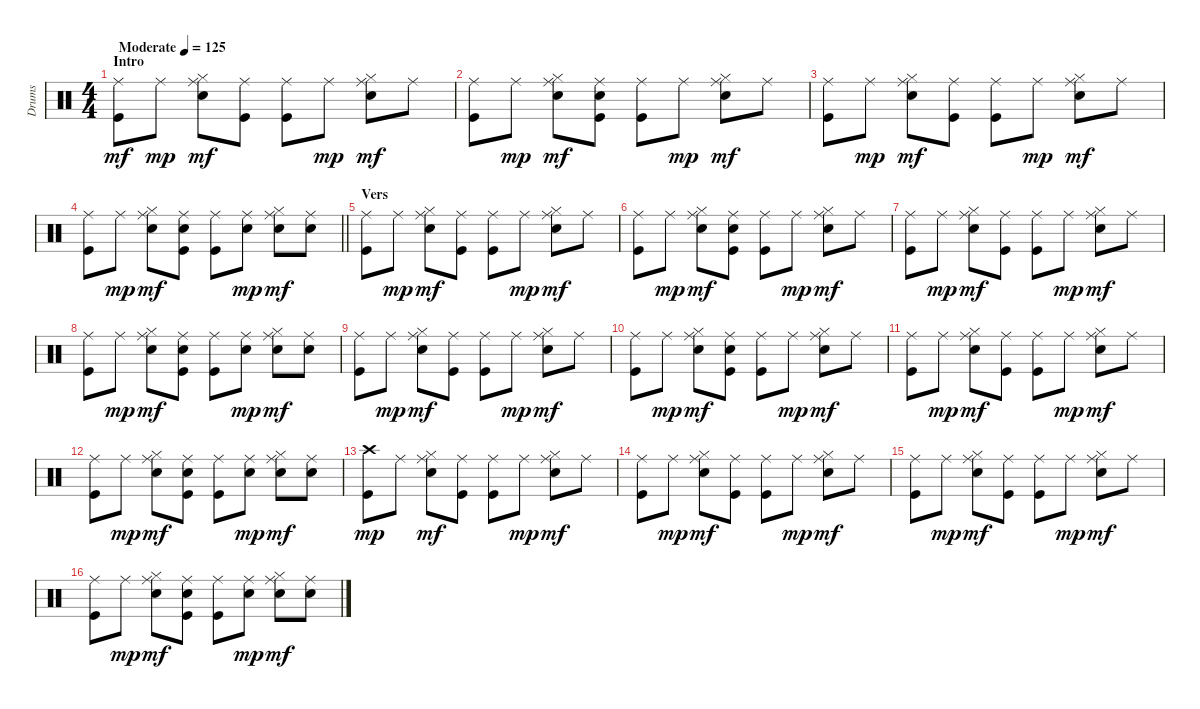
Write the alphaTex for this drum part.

\track ("Drums " "Drums ") {instrument percussion}
\staff {score}
\articulation defaults
\ts (4 4)
\section ("" "Intro")
\tempo (125 "Moderate")
\clef neutral
\ks c
("Kick (hit)" "Ride (middle)").8{dy mf} "Ride (middle)".8{dy mp} ("Snare (hit) 2" "Hi-Hat (closed)" "Ride (middle)").8{dy mf} ("Kick (hit)" "Ride (middle)").8 ("Kick (hit)" "Ride (middle)").8 "Ride (middle)".8{dy mp} ("Snare (hit) 2" "Hi-Hat (closed)" "Ride (middle)").8{dy mf} "Ride (middle)".8 |
("Kick (hit)" "Ride (middle)").8 "Ride (middle)".8{dy mp} ("Snare (hit) 2" "Hi-Hat (closed)" "Ride (middle)").8{dy mf} ("Kick (hit)" "Snare (hit) 2" "Ride (middle)").8 ("Kick (hit)" "Ride (middle)").8 "Ride (middle)".8{dy mp} ("Snare (hit) 2" "Hi-Hat (closed)" "Ride (middle)").8{dy mf} "Ride (middle)".8 |
("Kick (hit)" "Ride (middle)").8 "Ride (middle)".8{dy mp} ("Snare (hit) 2" "Hi-Hat (closed)" "Ride (middle)").8{dy mf} ("Kick (hit)" "Ride (middle)").8 ("Kick (hit)" "Ride (middle)").8 "Ride (middle)".8{dy mp} ("Snare (hit) 2" "Hi-Hat (closed)" "Ride (middle)").8{dy mf} "Ride (middle)".8 |
\barLineRight lightlight
("Kick (hit)" "Ride (middle)").8 "Ride (middle)".8{dy mp} ("Snare (hit) 2" "Hi-Hat (closed)" "Ride (middle)").8{dy mf} ("Kick (hit)" "Snare (hit) 2" "Ride (middle)").8 ("Kick (hit)" "Ride (middle)").8 ("Snare (hit) 2" "Ride (middle)").8{dy mp} ("Snare (hit) 2" "Hi-Hat (closed)" "Ride (middle)").8{dy mf} ("Snare (hit) 2" "Ride (middle)").8 |
\section ("" "Vers")
("Kick (hit)" "Ride (middle)").8 "Ride (middle)".8{dy mp} ("Snare (hit) 2" "Hi-Hat (closed)" "Ride (middle)").8{dy mf} ("Kick (hit)" "Ride (middle)").8 ("Kick (hit)" "Ride (middle)").8 "Ride (middle)".8{dy mp} ("Snare (hit) 2" "Hi-Hat (closed)" "Ride (middle)").8{dy mf} "Ride (middle)".8 |
("Kick (hit)" "Ride (middle)").8 "Ride (middle)".8{dy mp} ("Snare (hit) 2" "Hi-Hat (closed)" "Ride (middle)").8{dy mf} ("Kick (hit)" "Snare (hit) 2" "Ride (middle)").8 ("Kick (hit)" "Ride (middle)").8 "Ride (middle)".8{dy mp} ("Snare (hit) 2" "Hi-Hat (closed)" "Ride (middle)").8{dy mf} "Ride (middle)".8 |
("Kick (hit)" "Ride (middle)").8 "Ride (middle)".8{dy mp} ("Snare (hit) 2" "Hi-Hat (closed)" "Ride (middle)").8{dy mf} ("Kick (hit)" "Ride (middle)").8 ("Kick (hit)" "Ride (middle)").8 "Ride (middle)".8{dy mp} ("Snare (hit) 2" "Hi-Hat (closed)" "Ride (middle)").8{dy mf} "Ride (middle)".8 |
("Kick (hit)" "Ride (middle)").8 "Ride (middle)".8{dy mp} ("Snare (hit) 2" "Hi-Hat (closed)" "Ride (middle)").8{dy mf} ("Kick (hit)" "Snare (hit) 2" "Ride (middle)").8 ("Kick (hit)" "Ride (middle)").8 ("Snare (hit) 2" "Ride (middle)").8{dy mp} ("Snare (hit) 2" "Hi-Hat (closed)" "Ride (middle)").8{dy mf} ("Snare (hit) 2" "Ride (middle)").8 |
("Kick (hit)" "Ride (middle)").8 "Ride (middle)".8{dy mp} ("Snare (hit) 2" "Hi-Hat (closed)" "Ride (middle)").8{dy mf} ("Kick (hit)" "Ride (middle)").8 ("Kick (hit)" "Ride (middle)").8 "Ride (middle)".8{dy mp} ("Snare (hit) 2" "Hi-Hat (closed)" "Ride (middle)").8{dy mf} "Ride (middle)".8 |
("Kick (hit)" "Ride (middle)").8 "Ride (middle)".8{dy mp} ("Snare (hit) 2" "Hi-Hat (closed)" "Ride (middle)").8{dy mf} ("Kick (hit)" "Snare (hit) 2" "Ride (middle)").8 ("Kick (hit)" "Ride (middle)").8 "Ride (middle)".8{dy mp} ("Snare (hit) 2" "Hi-Hat (closed)" "Ride (middle)").8{dy mf} "Ride (middle)".8 |
("Kick (hit)" "Ride (middle)").8 "Ride (middle)".8{dy mp} ("Snare (hit) 2" "Hi-Hat (closed)" "Ride (middle)").8{dy mf} ("Kick (hit)" "Ride (middle)").8 ("Kick (hit)" "Ride (middle)").8 "Ride (middle)".8{dy mp} ("Snare (hit) 2" "Hi-Hat (closed)" "Ride (middle)").8{dy mf} "Ride (middle)".8 |
("Kick (hit)" "Ride (middle)").8 "Ride (middle)".8{dy mp} ("Snare (hit) 2" "Hi-Hat (closed)" "Ride (middle)").8{dy mf} ("Kick (hit)" "Snare (hit) 2" "Ride (middle)").8 ("Kick (hit)" "Ride (middle)").8 ("Snare (hit) 2" "Ride (middle)").8{dy mp} ("Snare (hit) 2" "Hi-Hat (closed)" "Ride (middle)").8{dy mf} ("Snare (hit) 2" "Ride (middle)").8 |
("Kick (hit)" "Crash high (hit)").8{dy mp} "Ride (middle)".8 ("Snare (hit) 2" "Hi-Hat (closed)" "Ride (middle)").8{dy mf} ("Kick (hit)" "Ride (middle)").8 ("Kick (hit)" "Ride (middle)").8 "Ride (middle)".8{dy mp} ("Snare (hit) 2" "Hi-Hat (closed)" "Ride (middle)").8{dy mf} "Ride (middle)".8 |
("Kick (hit)" "Ride (middle)").8 "Ride (middle)".8{dy mp} ("Snare (hit) 2" "Hi-Hat (closed)" "Ride (middle)").8{dy mf} ("Kick (hit)" "Ride (middle)").8 ("Kick (hit)" "Ride (middle)").8 "Ride (middle)".8{dy mp} ("Snare (hit) 2" "Hi-Hat (closed)" "Ride (middle)").8{dy mf} "Ride (middle)".8 |
("Kick (hit)" "Ride (middle)").8 "Ride (middle)".8{dy mp} ("Snare (hit) 2" "Hi-Hat (closed)" "Ride (middle)").8{dy mf} ("Kick (hit)" "Ride (middle)").8 ("Kick (hit)" "Ride (middle)").8 "Ride (middle)".8{dy mp} ("Snare (hit) 2" "Hi-Hat (closed)" "Ride (middle)").8{dy mf} "Ride (middle)".8 |
("Kick (hit)" "Ride (middle)").8 "Ride (middle)".8{dy mp} ("Snare (hit) 2" "Hi-Hat (closed)" "Ride (middle)").8{dy mf} ("Kick (hit)" "Snare (hit) 2" "Ride (middle)").8 ("Kick (hit)" "Ride (middle)").8 ("Snare (hit) 2" "Ride (middle)").8{dy mp} ("Snare (hit) 2" "Hi-Hat (closed)" "Ride (middle)").8{dy mf} ("Snare (hit) 2" "Ride (middle)").8
